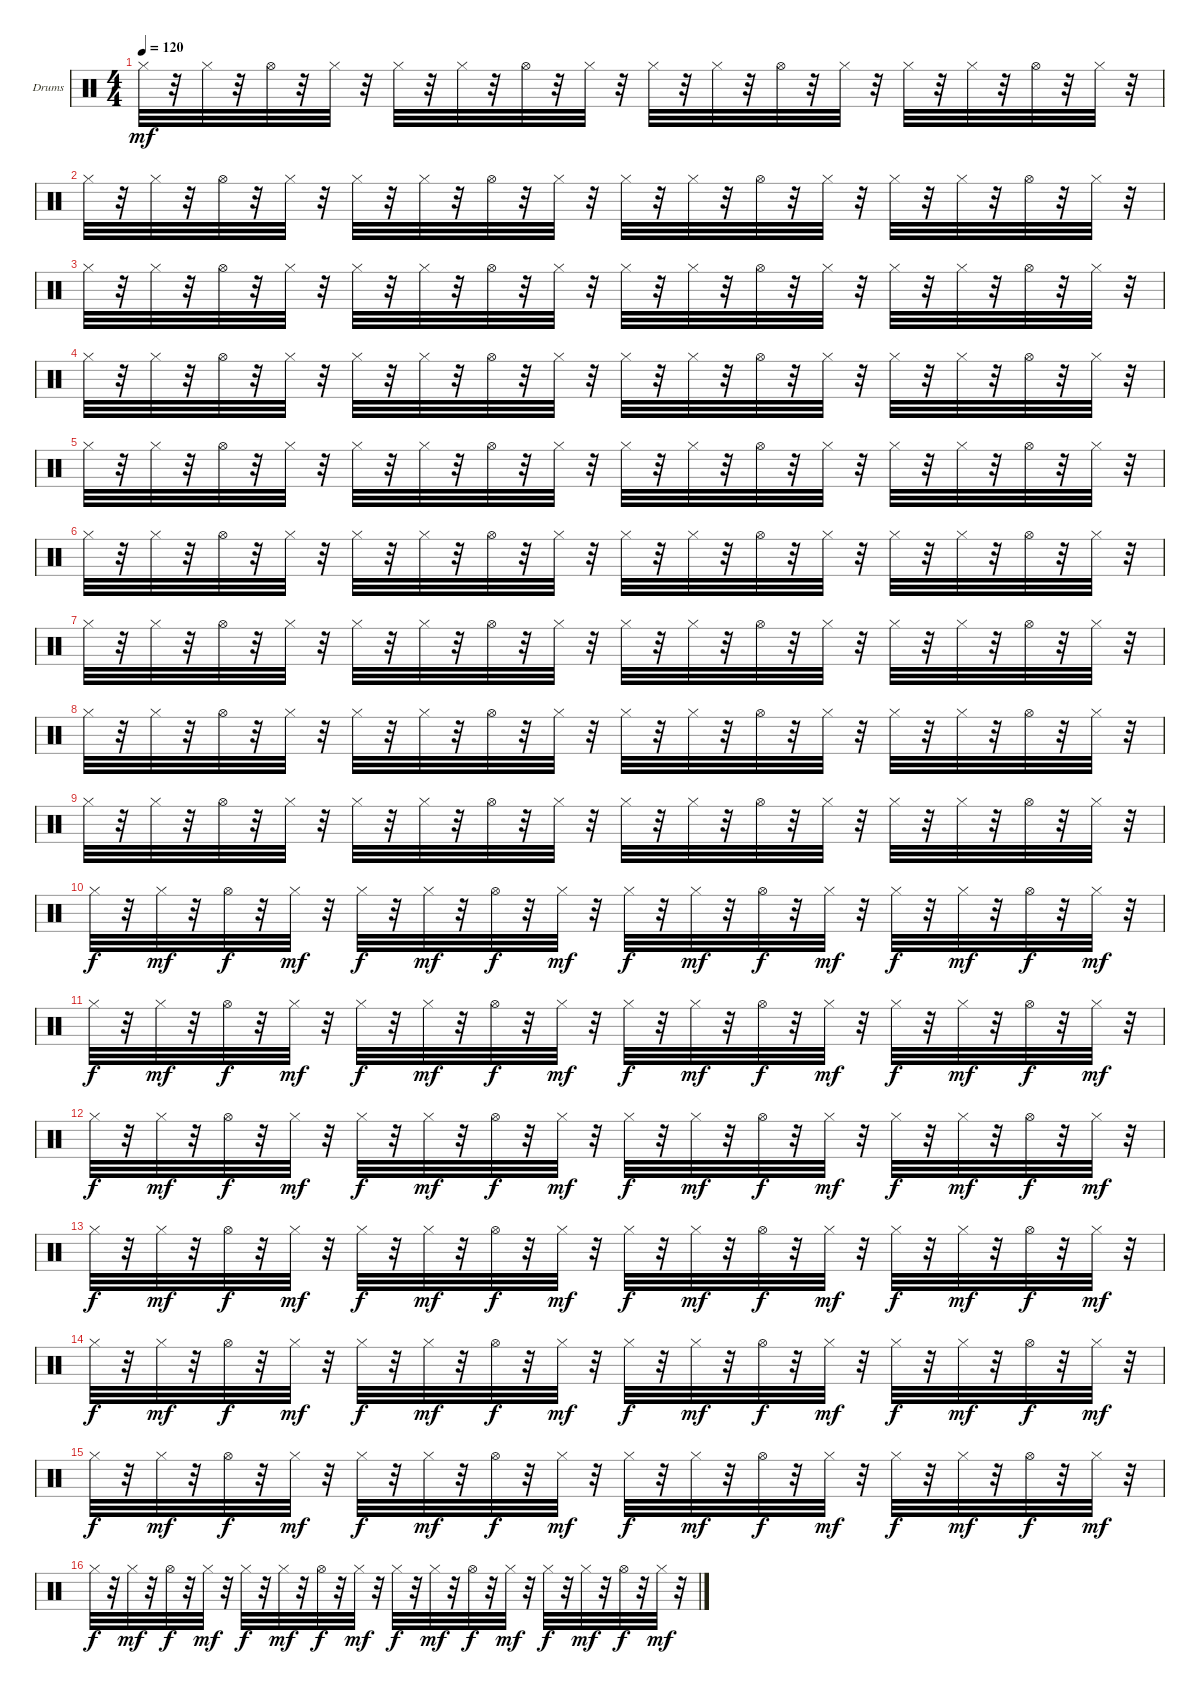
\defaultSystemsLayout 4
\bracketExtendMode nobrackets
\firstSystemTrackNameOrientation horizontal
\otherSystemsTrackNameOrientation horizontal
\track ("Drumkit" "Drums") {instrument percussion}
\staff {score}
\articulation defaults
\ts (4 4)
\tempo 120
\clef neutral
\ks c "Hi-Hat (closed)".32{dy mf}
r.32 "Hi-Hat (closed)".32 r.32 "Hi-Hat (open)".32 r.32 "Hi-Hat (closed)".32 r.32 "Hi-Hat (closed)".32 r.32 "Hi-Hat (closed)".32 r.32 "Hi-Hat (open)".32 r.32 "Hi-Hat (closed)".32 r.32 "Hi-Hat (closed)".32 r.32 "Hi-Hat (closed)".32 r.32 "Hi-Hat (open)".32 r.32 "Hi-Hat (closed)".32 r.32 "Hi-Hat (closed)".32 r.32 "Hi-Hat (closed)".32 r.32 "Hi-Hat (open)".32 r.32 "Hi-Hat (closed)".32 r.32 |
"Hi-Hat (closed)".32 r.32 "Hi-Hat (closed)".32 r.32 "Hi-Hat (open)".32 r.32 "Hi-Hat (closed)".32 r.32 "Hi-Hat (closed)".32 r.32 "Hi-Hat (closed)".32 r.32 "Hi-Hat (open)".32 r.32 "Hi-Hat (closed)".32 r.32 "Hi-Hat (closed)".32 r.32 "Hi-Hat (closed)".32 r.32 "Hi-Hat (open)".32 r.32 "Hi-Hat (closed)".32 r.32 "Hi-Hat (closed)".32 r.32 "Hi-Hat (closed)".32 r.32 "Hi-Hat (open)".32 r.32 "Hi-Hat (closed)".32 r.32 |
"Hi-Hat (closed)".32 r.32 "Hi-Hat (closed)".32 r.32 "Hi-Hat (open)".32 r.32 "Hi-Hat (closed)".32 r.32 "Hi-Hat (closed)".32 r.32 "Hi-Hat (closed)".32 r.32 "Hi-Hat (open)".32 r.32 "Hi-Hat (closed)".32 r.32 "Hi-Hat (closed)".32 r.32 "Hi-Hat (closed)".32 r.32 "Hi-Hat (open)".32 r.32 "Hi-Hat (closed)".32 r.32 "Hi-Hat (closed)".32 r.32 "Hi-Hat (closed)".32 r.32 "Hi-Hat (open)".32 r.32 "Hi-Hat (closed)".32 r.32 |
"Hi-Hat (closed)".32 r.32 "Hi-Hat (closed)".32 r.32 "Hi-Hat (open)".32 r.32 "Hi-Hat (closed)".32 r.32 "Hi-Hat (closed)".32 r.32 "Hi-Hat (closed)".32 r.32 "Hi-Hat (open)".32 r.32 "Hi-Hat (closed)".32 r.32 "Hi-Hat (closed)".32 r.32 "Hi-Hat (closed)".32 r.32 "Hi-Hat (open)".32 r.32 "Hi-Hat (closed)".32 r.32 "Hi-Hat (closed)".32 r.32 "Hi-Hat (closed)".32 r.32 "Hi-Hat (open)".32 r.32 "Hi-Hat (closed)".32 r.32 |
"Hi-Hat (closed)".32 r.32 "Hi-Hat (closed)".32 r.32 "Hi-Hat (open)".32 r.32 "Hi-Hat (closed)".32 r.32 "Hi-Hat (closed)".32 r.32 "Hi-Hat (closed)".32 r.32 "Hi-Hat (open)".32 r.32 "Hi-Hat (closed)".32 r.32 "Hi-Hat (closed)".32 r.32 "Hi-Hat (closed)".32 r.32 "Hi-Hat (open)".32 r.32 "Hi-Hat (closed)".32 r.32 "Hi-Hat (closed)".32 r.32 "Hi-Hat (closed)".32 r.32 "Hi-Hat (open)".32 r.32 "Hi-Hat (closed)".32 r.32 |
"Hi-Hat (closed)".32 r.32 "Hi-Hat (closed)".32 r.32 "Hi-Hat (open)".32 r.32 "Hi-Hat (closed)".32 r.32 "Hi-Hat (closed)".32 r.32 "Hi-Hat (closed)".32 r.32 "Hi-Hat (open)".32 r.32 "Hi-Hat (closed)".32 r.32 "Hi-Hat (closed)".32 r.32 "Hi-Hat (closed)".32 r.32 "Hi-Hat (open)".32 r.32 "Hi-Hat (closed)".32 r.32 "Hi-Hat (closed)".32 r.32 "Hi-Hat (closed)".32 r.32 "Hi-Hat (open)".32 r.32 "Hi-Hat (closed)".32 r.32 |
"Hi-Hat (closed)".32 r.32 "Hi-Hat (closed)".32 r.32 "Hi-Hat (open)".32 r.32 "Hi-Hat (closed)".32 r.32 "Hi-Hat (closed)".32 r.32 "Hi-Hat (closed)".32 r.32 "Hi-Hat (open)".32 r.32 "Hi-Hat (closed)".32 r.32 "Hi-Hat (closed)".32 r.32 "Hi-Hat (closed)".32 r.32 "Hi-Hat (open)".32 r.32 "Hi-Hat (closed)".32 r.32 "Hi-Hat (closed)".32 r.32 "Hi-Hat (closed)".32 r.32 "Hi-Hat (open)".32 r.32 "Hi-Hat (closed)".32 r.32 |
"Hi-Hat (closed)".32 r.32 "Hi-Hat (closed)".32 r.32 "Hi-Hat (open)".32 r.32 "Hi-Hat (closed)".32 r.32 "Hi-Hat (closed)".32 r.32 "Hi-Hat (closed)".32 r.32 "Hi-Hat (open)".32 r.32 "Hi-Hat (closed)".32 r.32 "Hi-Hat (closed)".32 r.32 "Hi-Hat (closed)".32 r.32 "Hi-Hat (open)".32 r.32 "Hi-Hat (closed)".32 r.32 "Hi-Hat (closed)".32 r.32 "Hi-Hat (closed)".32 r.32 "Hi-Hat (open)".32 r.32 "Hi-Hat (closed)".32 r.32 |
"Hi-Hat (closed)".32 r.32 "Hi-Hat (closed)".32 r.32 "Hi-Hat (open)".32 r.32 "Hi-Hat (closed)".32 r.32 "Hi-Hat (closed)".32 r.32 "Hi-Hat (closed)".32 r.32 "Hi-Hat (open)".32 r.32 "Hi-Hat (closed)".32 r.32 "Hi-Hat (closed)".32 r.32 "Hi-Hat (closed)".32 r.32 "Hi-Hat (open)".32 r.32 "Hi-Hat (closed)".32 r.32 "Hi-Hat (closed)".32 r.32 "Hi-Hat (closed)".32 r.32 "Hi-Hat (open)".32 r.32 "Hi-Hat (closed)".32 r.32 |
"Hi-Hat (closed)".32{dy f} r.32 "Hi-Hat (closed)".32{dy mf} r.32 "Hi-Hat (open)".32{dy f} r.32 "Hi-Hat (closed)".32{dy mf} r.32 "Hi-Hat (closed)".32{dy f} r.32 "Hi-Hat (closed)".32{dy mf} r.32 "Hi-Hat (open)".32{dy f} r.32 "Hi-Hat (closed)".32{dy mf} r.32 "Hi-Hat (closed)".32{dy f} r.32 "Hi-Hat (closed)".32{dy mf} r.32 "Hi-Hat (open)".32{dy f} r.32 "Hi-Hat (closed)".32{dy mf} r.32 "Hi-Hat (closed)".32{dy f} r.32 "Hi-Hat (closed)".32{dy mf} r.32 "Hi-Hat (open)".32{dy f} r.32 "Hi-Hat (closed)".32{dy mf} r.32 |
"Hi-Hat (closed)".32{dy f} r.32 "Hi-Hat (closed)".32{dy mf} r.32 "Hi-Hat (open)".32{dy f} r.32 "Hi-Hat (closed)".32{dy mf} r.32 "Hi-Hat (closed)".32{dy f} r.32 "Hi-Hat (closed)".32{dy mf} r.32 "Hi-Hat (open)".32{dy f} r.32 "Hi-Hat (closed)".32{dy mf} r.32 "Hi-Hat (closed)".32{dy f} r.32 "Hi-Hat (closed)".32{dy mf} r.32 "Hi-Hat (open)".32{dy f} r.32 "Hi-Hat (closed)".32{dy mf} r.32 "Hi-Hat (closed)".32{dy f} r.32 "Hi-Hat (closed)".32{dy mf} r.32 "Hi-Hat (open)".32{dy f} r.32 "Hi-Hat (closed)".32{dy mf} r.32 |
"Hi-Hat (closed)".32{dy f} r.32 "Hi-Hat (closed)".32{dy mf} r.32 "Hi-Hat (open)".32{dy f} r.32 "Hi-Hat (closed)".32{dy mf} r.32 "Hi-Hat (closed)".32{dy f} r.32 "Hi-Hat (closed)".32{dy mf} r.32 "Hi-Hat (open)".32{dy f} r.32 "Hi-Hat (closed)".32{dy mf} r.32 "Hi-Hat (closed)".32{dy f} r.32 "Hi-Hat (closed)".32{dy mf} r.32 "Hi-Hat (open)".32{dy f} r.32 "Hi-Hat (closed)".32{dy mf} r.32 "Hi-Hat (closed)".32{dy f} r.32 "Hi-Hat (closed)".32{dy mf} r.32 "Hi-Hat (open)".32{dy f} r.32 "Hi-Hat (closed)".32{dy mf} r.32 |
"Hi-Hat (closed)".32{dy f} r.32 "Hi-Hat (closed)".32{dy mf} r.32 "Hi-Hat (open)".32{dy f} r.32 "Hi-Hat (closed)".32{dy mf} r.32 "Hi-Hat (closed)".32{dy f} r.32 "Hi-Hat (closed)".32{dy mf} r.32 "Hi-Hat (open)".32{dy f} r.32 "Hi-Hat (closed)".32{dy mf} r.32 "Hi-Hat (closed)".32{dy f} r.32 "Hi-Hat (closed)".32{dy mf} r.32 "Hi-Hat (open)".32{dy f} r.32 "Hi-Hat (closed)".32{dy mf} r.32 "Hi-Hat (closed)".32{dy f} r.32 "Hi-Hat (closed)".32{dy mf} r.32 "Hi-Hat (open)".32{dy f} r.32 "Hi-Hat (closed)".32{dy mf} r.32 |
"Hi-Hat (closed)".32{dy f} r.32 "Hi-Hat (closed)".32{dy mf} r.32 "Hi-Hat (open)".32{dy f} r.32 "Hi-Hat (closed)".32{dy mf} r.32 "Hi-Hat (closed)".32{dy f} r.32 "Hi-Hat (closed)".32{dy mf} r.32 "Hi-Hat (open)".32{dy f} r.32 "Hi-Hat (closed)".32{dy mf} r.32 "Hi-Hat (closed)".32{dy f} r.32 "Hi-Hat (closed)".32{dy mf} r.32 "Hi-Hat (open)".32{dy f} r.32 "Hi-Hat (closed)".32{dy mf} r.32 "Hi-Hat (closed)".32{dy f} r.32 "Hi-Hat (closed)".32{dy mf} r.32 "Hi-Hat (open)".32{dy f} r.32 "Hi-Hat (closed)".32{dy mf} r.32 |
"Hi-Hat (closed)".32{dy f} r.32 "Hi-Hat (closed)".32{dy mf} r.32 "Hi-Hat (open)".32{dy f} r.32 "Hi-Hat (closed)".32{dy mf} r.32 "Hi-Hat (closed)".32{dy f} r.32 "Hi-Hat (closed)".32{dy mf} r.32 "Hi-Hat (open)".32{dy f} r.32 "Hi-Hat (closed)".32{dy mf} r.32 "Hi-Hat (closed)".32{dy f} r.32 "Hi-Hat (closed)".32{dy mf} r.32 "Hi-Hat (open)".32{dy f} r.32 "Hi-Hat (closed)".32{dy mf} r.32 "Hi-Hat (closed)".32{dy f} r.32 "Hi-Hat (closed)".32{dy mf} r.32 "Hi-Hat (open)".32{dy f} r.32 "Hi-Hat (closed)".32{dy mf} r.32 |
"Hi-Hat (closed)".32{dy f} r.32 "Hi-Hat (closed)".32{dy mf} r.32 "Hi-Hat (open)".32{dy f} r.32 "Hi-Hat (closed)".32{dy mf} r.32 "Hi-Hat (closed)".32{dy f} r.32 "Hi-Hat (closed)".32{dy mf} r.32 "Hi-Hat (open)".32{dy f} r.32 "Hi-Hat (closed)".32{dy mf} r.32 "Hi-Hat (closed)".32{dy f} r.32 "Hi-Hat (closed)".32{dy mf} r.32 "Hi-Hat (open)".32{dy f} r.32 "Hi-Hat (closed)".32{dy mf} r.32 "Hi-Hat (closed)".32{dy f} r.32 "Hi-Hat (closed)".32{dy mf} r.32 "Hi-Hat (open)".32{dy f} r.32 "Hi-Hat (closed)".32{dy mf} r.32
